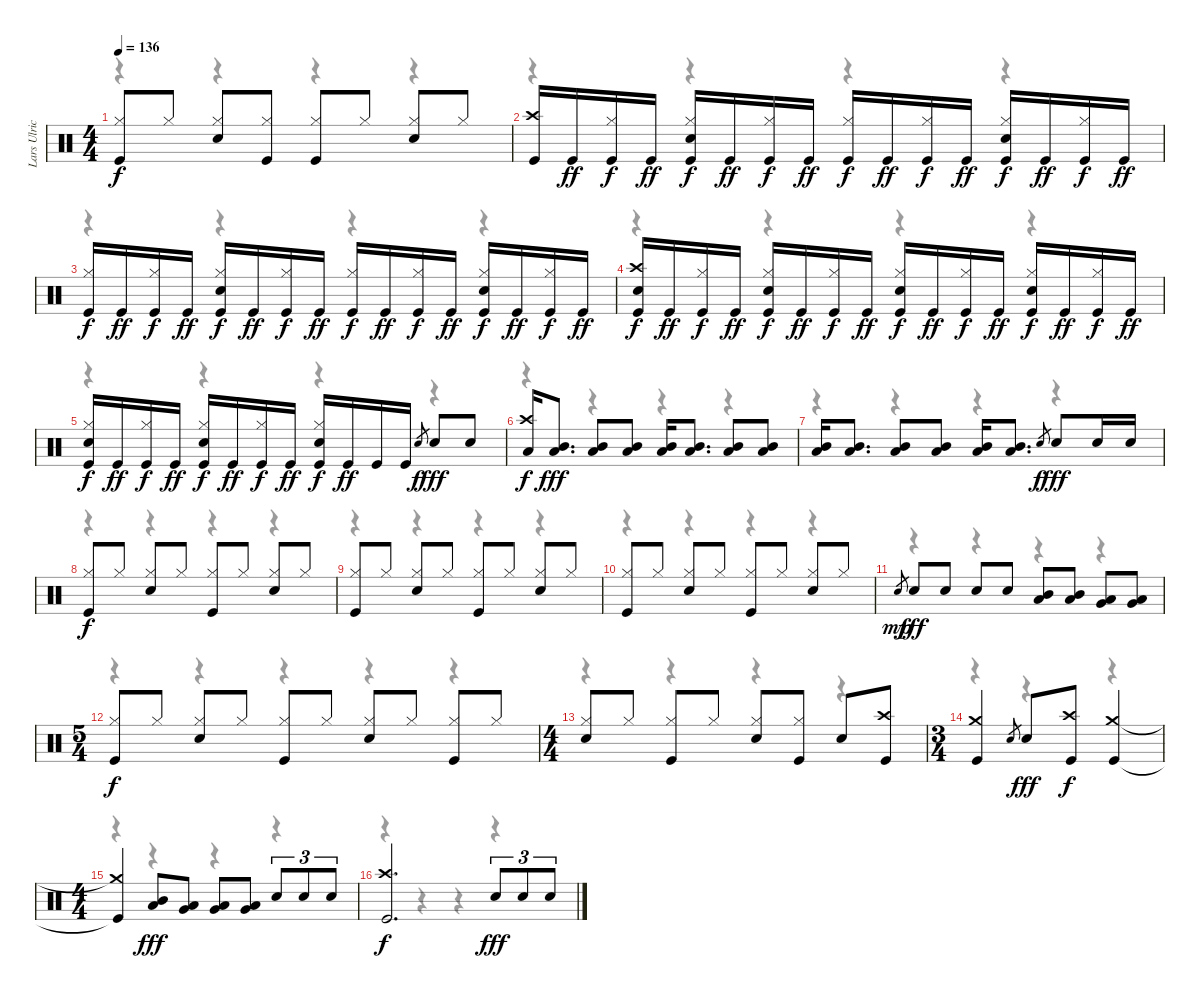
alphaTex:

\track ("Lars Ulrich" "Lars Ulric") {instrument percussion}
\staff {score}
\articulation defaults
\voice
\ts (4 4)
\tempo 136
\clef neutral
\ks c
("Hi-Hat (closed)" "Kick (hit)").8{dy f} "Hi-Hat (closed)".8 ("Hi-Hat (closed)" "Snare (hit) 2").8 ("Hi-Hat (closed)" "Kick (hit)").8 ("Hi-Hat (closed)" "Kick (hit)").8 "Hi-Hat (closed)".8 ("Hi-Hat (closed)" "Snare (hit) 2").8 "Hi-Hat (closed)".8 |
("Crash high (hit)" "Kick (hit)").16 "Kick (hit)".16{dy ff} ("Hi-Hat (closed)" "Kick (hit)").16{dy f} "Kick (hit)".16{dy ff} ("Hi-Hat (closed)" "Snare (hit) 2" "Kick (hit)").16{dy f} "Kick (hit)".16{dy ff} ("Hi-Hat (closed)" "Kick (hit)").16{dy f} "Kick (hit)".16{dy ff} ("Hi-Hat (closed)" "Kick (hit)").16{dy f} "Kick (hit)".16{dy ff} ("Hi-Hat (closed)" "Kick (hit)").16{dy f} "Kick (hit)".16{dy ff} ("Hi-Hat (closed)" "Snare (hit) 2" "Kick (hit)").16{dy f} "Kick (hit)".16{dy ff} ("Hi-Hat (closed)" "Kick (hit)").16{dy f} "Kick (hit)".16{dy ff} |
("Hi-Hat (closed)" "Kick (hit)").16{dy f} "Kick (hit)".16{dy ff} ("Hi-Hat (closed)" "Kick (hit)").16{dy f} "Kick (hit)".16{dy ff} ("Hi-Hat (closed)" "Snare (hit) 2" "Kick (hit)").16{dy f} "Kick (hit)".16{dy ff} ("Hi-Hat (closed)" "Kick (hit)").16{dy f} "Kick (hit)".16{dy ff} ("Hi-Hat (closed)" "Kick (hit)").16{dy f} "Kick (hit)".16{dy ff} ("Hi-Hat (closed)" "Kick (hit)").16{dy f} "Kick (hit)".16{dy ff} ("Hi-Hat (closed)" "Snare (hit) 2" "Kick (hit)").16{dy f} "Kick (hit)".16{dy ff} ("Hi-Hat (closed)" "Kick (hit)").16{dy f} "Kick (hit)".16{dy ff} |
("Crash high (hit)" "Snare (hit) 2" "Kick (hit)").16{dy f} "Kick (hit)".16{dy ff} ("Hi-Hat (closed)" "Kick (hit)").16{dy f} "Kick (hit)".16{dy ff} ("Hi-Hat (closed)" "Snare (hit) 2" "Kick (hit)").16{dy f} "Kick (hit)".16{dy ff} ("Hi-Hat (closed)" "Kick (hit)").16{dy f} "Kick (hit)".16{dy ff} ("Hi-Hat (closed)" "Snare (hit) 2" "Kick (hit)").16{dy f} "Kick (hit)".16{dy ff} ("Hi-Hat (closed)" "Kick (hit)").16{dy f} "Kick (hit)".16{dy ff} ("Hi-Hat (closed)" "Snare (hit) 2" "Kick (hit)").16{dy f} "Kick (hit)".16{dy ff} ("Hi-Hat (closed)" "Kick (hit)").16{dy f} "Kick (hit)".16{dy ff} |
("Hi-Hat (closed)" "Snare (hit) 2" "Kick (hit)").16{dy f} "Kick (hit)".16{dy ff} ("Hi-Hat (closed)" "Kick (hit)").16{dy f} "Kick (hit)".16{dy ff} ("Hi-Hat (closed)" "Snare (hit) 2" "Kick (hit)").16{dy f} "Kick (hit)".16{dy ff} ("Hi-Hat (closed)" "Kick (hit)").16{dy f} "Kick (hit)".16{dy ff} ("Hi-Hat (closed)" "Snare (hit) 2" "Kick (hit)").16{dy f} "Kick (hit)".16{dy ff} "Kick (hit)".16 "Kick (hit)".16 "Snare (hit)".8{gr dy f} "Snare (hit) 2".8{dy fff} "Snare (hit) 2".8 |
("Crash high (hit)" "Low Tom (hit)").16{dy f} ("Mid Tom (hit)" "Low Tom (hit)").8{d dy fff} ("Mid Tom (hit)" "Low Tom (hit)").8 ("Mid Tom (hit)" "Low Tom (hit)").8 ("Mid Tom (hit)" "Low Tom (hit)").16 ("Mid Tom (hit)" "Low Tom (hit)").8{d} ("Mid Tom (hit)" "Low Tom (hit)").8 ("Mid Tom (hit)" "Low Tom (hit)").8 |
("Mid Tom (hit)" "Low Tom (hit)").16 ("Mid Tom (hit)" "Low Tom (hit)").8{d} ("Mid Tom (hit)" "Low Tom (hit)").8 ("Mid Tom (hit)" "Low Tom (hit)").8 ("Mid Tom (hit)" "Low Tom (hit)").16 ("Mid Tom (hit)" "Low Tom (hit)").8{d} "Snare (hit)".8{gr dy f} "Snare (hit) 2".8{dy fff} "Snare (hit) 2".16 "Snare (hit) 2".16 |
("Hi-Hat (closed)" "Kick (hit)").8{dy f} "Hi-Hat (closed)".8 ("Hi-Hat (closed)" "Snare (hit) 2").8 "Hi-Hat (closed)".8 ("Hi-Hat (closed)" "Kick (hit)").8 "Hi-Hat (closed)".8 ("Hi-Hat (closed)" "Snare (hit) 2").8 "Hi-Hat (closed)".8 |
("Hi-Hat (closed)" "Kick (hit)").8 "Hi-Hat (closed)".8 ("Hi-Hat (closed)" "Snare (hit) 2").8 "Hi-Hat (closed)".8 ("Hi-Hat (closed)" "Kick (hit)").8 "Hi-Hat (closed)".8 ("Hi-Hat (closed)" "Snare (hit) 2").8 "Hi-Hat (closed)".8 |
("Hi-Hat (closed)" "Kick (hit)").8 "Hi-Hat (closed)".8 ("Hi-Hat (closed)" "Snare (hit) 2").8 "Hi-Hat (closed)".8 ("Hi-Hat (closed)" "Kick (hit)").8 "Hi-Hat (closed)".8 ("Hi-Hat (closed)" "Snare (hit) 2").8 "Hi-Hat (closed)".8 |
"Snare (hit)".8{gr dy mp} "Snare (hit) 2".8{dy fff} "Snare (hit) 2".8 "Snare (hit) 2".8 "Snare (hit) 2".8 ("Mid Tom (hit)" "Low Tom (hit)").8 ("Mid Tom (hit)" "Low Tom (hit)").8 ("Low Tom (hit)" "Very Low Tom (hit)").8 ("Low Tom (hit)" "Very Low Tom (hit)").8 |
\ts (5 4)
("Hi-Hat (closed)" "Kick (hit)").8{dy f} "Hi-Hat (closed)".8 ("Hi-Hat (closed)" "Snare (hit) 2").8 "Hi-Hat (closed)".8 ("Hi-Hat (closed)" "Kick (hit)").8 "Hi-Hat (closed)".8 ("Hi-Hat (closed)" "Snare (hit) 2").8 "Hi-Hat (closed)".8 ("Hi-Hat (closed)" "Kick (hit)").8 "Hi-Hat (closed)".8 |
\ts (4 4)
("Hi-Hat (closed)" "Snare (hit) 2").8 "Hi-Hat (closed)".8 ("Hi-Hat (closed)" "Kick (hit)").8 "Hi-Hat (closed)".8 ("Hi-Hat (closed)" "Snare (hit) 2").8 ("Hi-Hat (closed)" "Kick (hit)").8 "Snare (hit) 2".8 ("Crash high (hit)" "Kick (hit)").8 |
\ts (3 4)
("Crash medium (hit)" "Kick (hit)").4 "Snare (hit)".8{gr} "Snare (hit) 2".8{dy fff} ("Crash high (hit)" "Kick (hit)").8{dy f} ("Crash medium (hit)" "Kick (hit)").4 |
\ts (4 4)
("Crash medium (hit)"{t} "Kick (hit)"{t}).4 ("Mid Tom (hit)" "Low Tom (hit)").8{dy fff} ("Low Tom (hit)" "Very Low Tom (hit)").8 ("Low Tom (hit)" "Very Low Tom (hit)").8 ("Very Low Tom (hit)" "Low Floor Tom (hit)").8 "Snare (hit) 2".8{tu (3 2)} "Snare (hit) 2".8{tu (3 2)} "Snare (hit) 2".8{tu (3 2)} |
("Crash high (hit)" "Kick (hit)").2{d dy f} "Snare (hit) 2".8{tu (3 2) dy fff} "Snare (hit) 2".8{tu (3 2)} "Snare (hit) 2".8{tu (3 2)}
\voice
\clef neutral
\ottava regular
\simile none
\ks c
r.4{dy f} r.4 r.4 r.4 |
r.4 r.4 r.4 r.4 |
r.4 r.4 r.4 r.4 |
r.4 r.4 r.4 r.4 |
r.4 r.4 r.4 r.4 |
r.4 r.4 r.4 r.4 |
r.4 r.4 r.4 r.4 |
r.4 r.4 r.4 r.4 |
r.4 r.4 r.4 r.4 |
r.4 r.4 r.4 r.4 |
r.4 r.4 r.4 r.4 |
r.4 r.4 r.4 r.4 r.4 |
r.4 r.4 r.4 r.4 |
r.4 r.4 r.4 |
r.4 r.4 r.4 r.4 |
r.4 r.4 r.4 r.4
